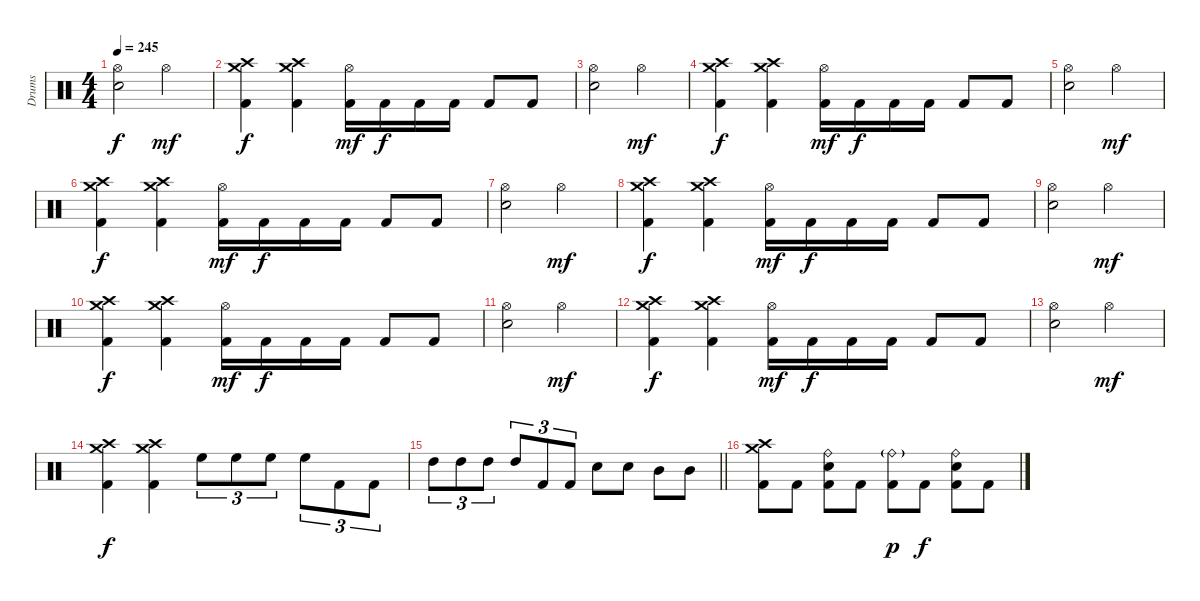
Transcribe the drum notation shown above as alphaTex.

\track ("Drums" "Drums") {instrument percussion}
\staff {score}
\articulation defaults
\ts (4 4)
\tempo 245
\clef neutral
\ks c
("Hi-Hat (open)" "Electric Snare (hit)").2{dy f} "Hi-Hat (open)".2{dy mf} |
("Crash high (hit)" "Crash medium (hit)" "Kick (hit) 2").4{dy f} ("Crash high (hit)" "Crash medium (hit)" "Kick (hit) 2").4 ("Hi-Hat (open)" "Kick (hit) 2").16{dy mf} "Kick (hit) 2".16{dy f} "Kick (hit) 2".16 "Kick (hit) 2".16 "Kick (hit) 2".8 "Kick (hit) 2".8 |
("Hi-Hat (open)" "Electric Snare (hit)").2 "Hi-Hat (open)".2{dy mf} |
("Crash high (hit)" "Crash medium (hit)" "Kick (hit) 2").4{dy f} ("Crash high (hit)" "Crash medium (hit)" "Kick (hit) 2").4 ("Hi-Hat (open)" "Kick (hit) 2").16{dy mf} "Kick (hit) 2".16{dy f} "Kick (hit) 2".16 "Kick (hit) 2".16 "Kick (hit) 2".8 "Kick (hit) 2".8 |
("Hi-Hat (open)" "Electric Snare (hit)").2 "Hi-Hat (open)".2{dy mf} |
("Crash high (hit)" "Crash medium (hit)" "Kick (hit) 2").4{dy f} ("Crash high (hit)" "Crash medium (hit)" "Kick (hit) 2").4 ("Hi-Hat (open)" "Kick (hit) 2").16{dy mf} "Kick (hit) 2".16{dy f} "Kick (hit) 2".16 "Kick (hit) 2".16 "Kick (hit) 2".8 "Kick (hit) 2".8 |
("Hi-Hat (open)" "Electric Snare (hit)").2 "Hi-Hat (open)".2{dy mf} |
("Crash high (hit)" "Crash medium (hit)" "Kick (hit) 2").4{dy f} ("Crash high (hit)" "Crash medium (hit)" "Kick (hit) 2").4 ("Hi-Hat (open)" "Kick (hit) 2").16{dy mf} "Kick (hit) 2".16{dy f} "Kick (hit) 2".16 "Kick (hit) 2".16 "Kick (hit) 2".8 "Kick (hit) 2".8 |
("Hi-Hat (open)" "Electric Snare (hit)").2 "Hi-Hat (open)".2{dy mf} |
("Crash high (hit)" "Crash medium (hit)" "Kick (hit) 2").4{dy f} ("Crash high (hit)" "Crash medium (hit)" "Kick (hit) 2").4 ("Hi-Hat (open)" "Kick (hit) 2").16{dy mf} "Kick (hit) 2".16{dy f} "Kick (hit) 2".16 "Kick (hit) 2".16 "Kick (hit) 2".8 "Kick (hit) 2".8 |
("Hi-Hat (open)" "Electric Snare (hit)").2 "Hi-Hat (open)".2{dy mf} |
("Crash high (hit)" "Crash medium (hit)" "Kick (hit) 2").4{dy f} ("Crash high (hit)" "Crash medium (hit)" "Kick (hit) 2").4 ("Hi-Hat (open)" "Kick (hit) 2").16{dy mf} "Kick (hit) 2".16{dy f} "Kick (hit) 2".16 "Kick (hit) 2".16 "Kick (hit) 2".8 "Kick (hit) 2".8 |
("Hi-Hat (open)" "Electric Snare (hit)").2 "Hi-Hat (open)".2{dy mf} |
("Crash high (hit)" "Crash medium (hit)" "Kick (hit) 2").4{dy f} ("Crash high (hit)" "Crash medium (hit)" "Kick (hit) 2").4 "High Floor Tom (hit)".8{tu (3 2)} "High Floor Tom (hit)".8{tu (3 2)} "High Floor Tom (hit)".8{tu (3 2)} "High Floor Tom (hit)".8{tu (3 2)} "Kick (hit) 2".8{tu (3 2)} "Kick (hit) 2".8{tu (3 2)} |
\barLineRight lightlight "High Tom (hit)".8{tu (3 2)} "High Tom (hit)".8{tu (3 2)} "High Tom (hit)".8{tu (3 2)} "High Tom (hit)".8{tu (3 2)} "Kick (hit) 2".8{tu (3 2)} "Kick (hit) 2".8{tu (3 2)} "Electric Snare (hit)".8 "Electric Snare (hit)".8 "Mid Tom (hit)".8 "Mid Tom (hit)".8
|
("Crash high (hit)" "Crash medium (hit)" "Kick (hit) 2").8 "Kick (hit) 2".8 ("Ride (bell)" "Electric Snare (hit)" "Kick (hit) 2").8 "Kick (hit) 2".8 ("Ride (bell)"{g} "Kick (hit) 2").8{dy p} "Kick (hit) 2".8{dy f} ("Ride (bell)" "Electric Snare (hit)" "Kick (hit) 2").8 "Kick (hit) 2".8
